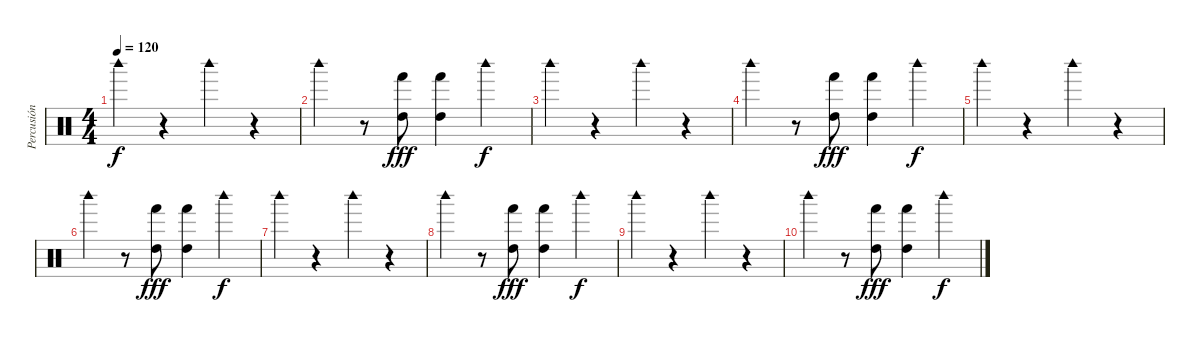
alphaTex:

\track ("Percusión" "Percusión") {instrument percussion}
\staff {score}
\articulation defaults
\ts (4 4)
\tempo 120
\clef neutral
\ks c "Woodblock high (hit)".4{dy f}
r.4 "Woodblock high (hit)".4 r.4 |
"Woodblock high (hit)".4 r.8 ("Hand (hit)" "High Tom (hit)").8{dy fff} ("Hand (hit)" "High Tom (hit)").4 "Woodblock high (hit)".4{dy f} |
"Woodblock high (hit)".4 r.4 "Woodblock high (hit)".4 r.4 |
"Woodblock high (hit)".4 r.8 ("Hand (hit)" "High Tom (hit)").8{dy fff} ("Hand (hit)" "High Tom (hit)").4 "Woodblock high (hit)".4{dy f} |
"Woodblock high (hit)".4 r.4 "Woodblock high (hit)".4 r.4 |
"Woodblock high (hit)".4 r.8 ("Hand (hit)" "High Tom (hit)").8{dy fff} ("Hand (hit)" "High Tom (hit)").4 "Woodblock high (hit)".4{dy f} |
"Woodblock high (hit)".4 r.4 "Woodblock high (hit)".4 r.4 |
"Woodblock high (hit)".4 r.8 ("Hand (hit)" "High Tom (hit)").8{dy fff} ("Hand (hit)" "High Tom (hit)").4 "Woodblock high (hit)".4{dy f} |
"Woodblock high (hit)".4 r.4 "Woodblock high (hit)".4 r.4 |
"Woodblock high (hit)".4 r.8 ("Hand (hit)" "High Tom (hit)").8{dy fff} ("Hand (hit)" "High Tom (hit)").4 "Woodblock high (hit)".4{dy f}
